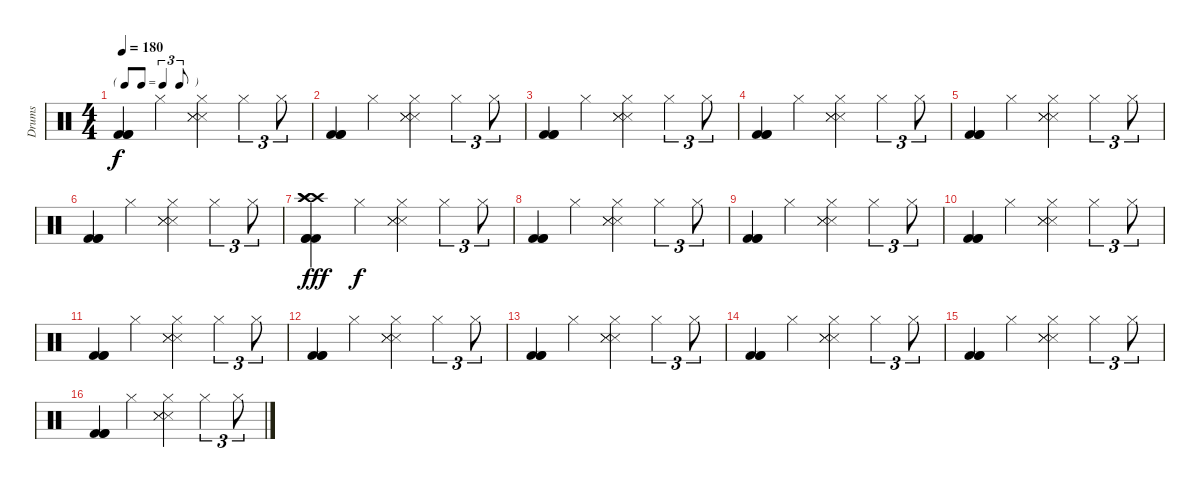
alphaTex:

\track ("Drums" "Drums") {instrument percussion}
\staff {score}
\articulation defaults
\ts (4 4)
\tf triplet8th
\tempo 180
\clef neutral
\ks c
("Kick (hit) 2" "Kick (hit) 2" "Kick (hit) 2").4{dy f} "Hi-Hat (closed)".4 ("Snare (side stick) 3" "Snare (side stick) 3" "Snare (side stick) 3" "Hi-Hat (closed)").4 "Hi-Hat (closed)".4{tu (3 2)} "Hi-Hat (closed)".8{tu (3 2)} |
("Kick (hit) 2" "Kick (hit) 2" "Kick (hit) 2").4 "Hi-Hat (closed)".4 ("Snare (side stick) 3" "Snare (side stick) 3" "Snare (side stick) 3" "Hi-Hat (closed)").4 "Hi-Hat (closed)".4{tu (3 2)} "Hi-Hat (closed)".8{tu (3 2)} |
("Kick (hit) 2" "Kick (hit) 2" "Kick (hit) 2").4 "Hi-Hat (closed)".4 ("Snare (side stick) 3" "Snare (side stick) 3" "Snare (side stick) 3" "Hi-Hat (closed)").4 "Hi-Hat (closed)".4{tu (3 2)} "Hi-Hat (closed)".8{tu (3 2)} |
("Kick (hit) 2" "Kick (hit) 2" "Kick (hit) 2").4 "Hi-Hat (closed)".4 ("Snare (side stick) 3" "Snare (side stick) 3" "Snare (side stick) 3" "Hi-Hat (closed)").4 "Hi-Hat (closed)".4{tu (3 2)} "Hi-Hat (closed)".8{tu (3 2)} |
("Kick (hit) 2" "Kick (hit) 2" "Kick (hit) 2").4 "Hi-Hat (closed)".4 ("Snare (side stick) 3" "Snare (side stick) 3" "Snare (side stick) 3" "Hi-Hat (closed)").4 "Hi-Hat (closed)".4{tu (3 2)} "Hi-Hat (closed)".8{tu (3 2)} |
("Kick (hit) 2" "Kick (hit) 2" "Kick (hit) 2").4 "Hi-Hat (closed)".4 ("Snare (side stick) 3" "Snare (side stick) 3" "Snare (side stick) 3" "Hi-Hat (closed)").4 "Hi-Hat (closed)".4{tu (3 2)} "Hi-Hat (closed)".8{tu (3 2)} |
("Crash high (hit)" "Crash high (hit)" "Crash high (hit)" "Kick (hit) 2" "Kick (hit) 2" "Kick (hit) 2").4{dy fff} "Hi-Hat (closed)".4{dy f} ("Snare (side stick) 3" "Snare (side stick) 3" "Snare (side stick) 3" "Hi-Hat (closed)").4 "Hi-Hat (closed)".4{tu (3 2)} "Hi-Hat (closed)".8{tu (3 2)} |
("Kick (hit) 2" "Kick (hit) 2" "Kick (hit) 2").4 "Hi-Hat (closed)".4 ("Snare (side stick) 3" "Snare (side stick) 3" "Snare (side stick) 3" "Hi-Hat (closed)").4 "Hi-Hat (closed)".4{tu (3 2)} "Hi-Hat (closed)".8{tu (3 2)} |
("Kick (hit) 2" "Kick (hit) 2" "Kick (hit) 2").4 "Hi-Hat (closed)".4 ("Snare (side stick) 3" "Snare (side stick) 3" "Snare (side stick) 3" "Hi-Hat (closed)").4 "Hi-Hat (closed)".4{tu (3 2)} "Hi-Hat (closed)".8{tu (3 2)} |
("Kick (hit) 2" "Kick (hit) 2" "Kick (hit) 2").4 "Hi-Hat (closed)".4 ("Snare (side stick) 3" "Snare (side stick) 3" "Snare (side stick) 3" "Hi-Hat (closed)").4 "Hi-Hat (closed)".4{tu (3 2)} "Hi-Hat (closed)".8{tu (3 2)} |
("Kick (hit) 2" "Kick (hit) 2" "Kick (hit) 2").4 "Hi-Hat (closed)".4 ("Snare (side stick) 3" "Snare (side stick) 3" "Snare (side stick) 3" "Hi-Hat (closed)").4 "Hi-Hat (closed)".4{tu (3 2)} "Hi-Hat (closed)".8{tu (3 2)} |
("Kick (hit) 2" "Kick (hit) 2" "Kick (hit) 2").4 "Hi-Hat (closed)".4 ("Snare (side stick) 3" "Snare (side stick) 3" "Snare (side stick) 3" "Hi-Hat (closed)").4 "Hi-Hat (closed)".4{tu (3 2)} "Hi-Hat (closed)".8{tu (3 2)} |
("Kick (hit) 2" "Kick (hit) 2" "Kick (hit) 2").4 "Hi-Hat (closed)".4 ("Snare (side stick) 3" "Snare (side stick) 3" "Snare (side stick) 3" "Hi-Hat (closed)").4 "Hi-Hat (closed)".4{tu (3 2)} "Hi-Hat (closed)".8{tu (3 2)} |
("Kick (hit) 2" "Kick (hit) 2" "Kick (hit) 2").4 "Hi-Hat (closed)".4 ("Snare (side stick) 3" "Snare (side stick) 3" "Snare (side stick) 3" "Hi-Hat (closed)").4 "Hi-Hat (closed)".4{tu (3 2)} "Hi-Hat (closed)".8{tu (3 2)} |
("Kick (hit) 2" "Kick (hit) 2" "Kick (hit) 2").4 "Hi-Hat (closed)".4 ("Snare (side stick) 3" "Snare (side stick) 3" "Snare (side stick) 3" "Hi-Hat (closed)").4 "Hi-Hat (closed)".4{tu (3 2)} "Hi-Hat (closed)".8{tu (3 2)} |
("Kick (hit) 2" "Kick (hit) 2" "Kick (hit) 2").4 "Hi-Hat (closed)".4 ("Snare (side stick) 3" "Snare (side stick) 3" "Snare (side stick) 3" "Hi-Hat (closed)").4 "Hi-Hat (closed)".4{tu (3 2)} "Hi-Hat (closed)".8{tu (3 2)}
